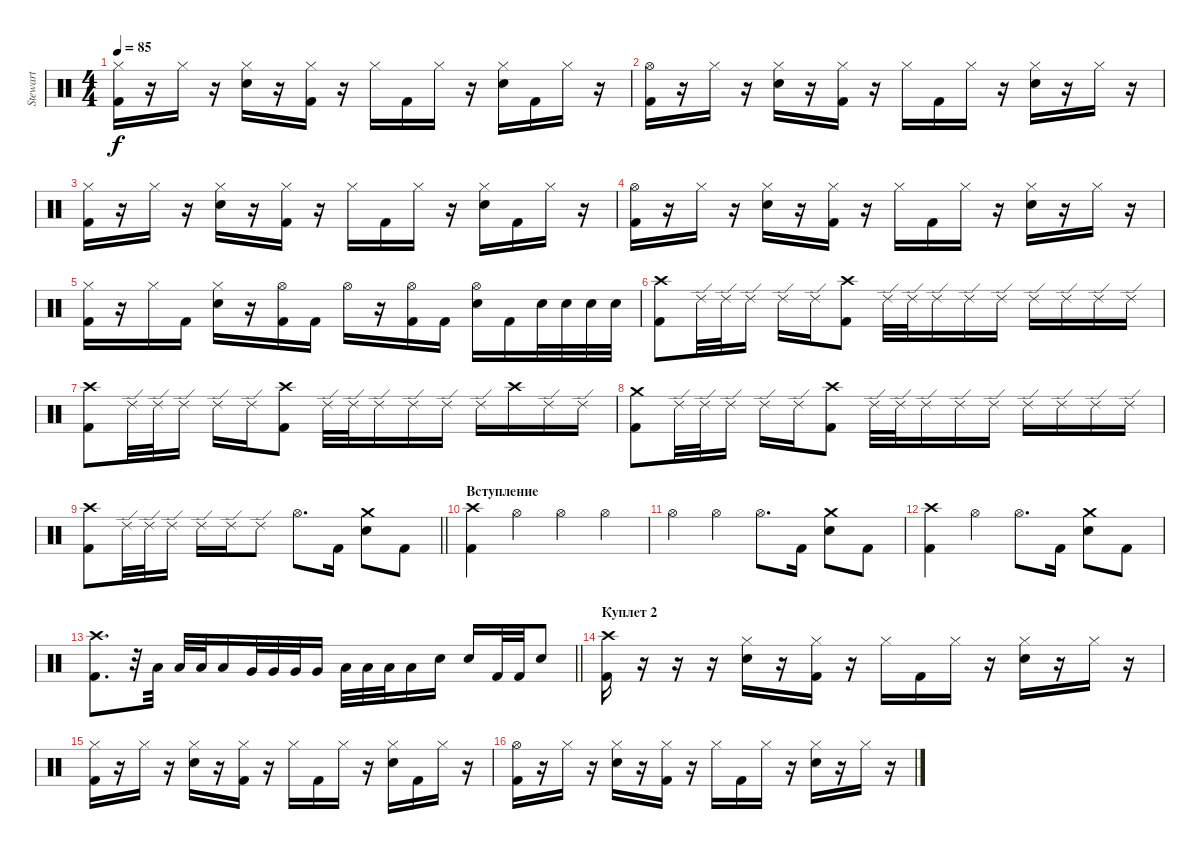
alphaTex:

\track ("Stewart" "Stewart") {instrument percussion}
\staff {score}
\articulation defaults
\ts (4 4)
\tempo 85
\clef neutral
\ks c
("Hi-Hat (closed)" "Kick (hit) 2").16{dy f} r.16 "Hi-Hat (closed)".16 r.16 ("Hi-Hat (closed)" "Electric Snare (hit)").16 r.16 ("Hi-Hat (closed)" "Kick (hit) 2").16 r.16 "Hi-Hat (closed)".16 "Kick (hit) 2".16 "Hi-Hat (closed)".16 r.16 ("Hi-Hat (closed)" "Electric Snare (hit)").16 "Kick (hit) 2".16 "Hi-Hat (closed)".16 r.16 |
("Hi-Hat (open)" "Kick (hit) 2").16 r.16 "Hi-Hat (closed)".16 r.16 ("Hi-Hat (closed)" "Electric Snare (hit)").16 r.16 ("Hi-Hat (closed)" "Kick (hit) 2").16 r.16 "Hi-Hat (closed)".16 "Kick (hit) 2".16 "Hi-Hat (closed)".16 r.16 ("Hi-Hat (closed)" "Electric Snare (hit)").16 r.16 "Hi-Hat (closed)".16 r.16 |
("Hi-Hat (closed)" "Kick (hit) 2").16 r.16 "Hi-Hat (closed)".16 r.16 ("Hi-Hat (closed)" "Electric Snare (hit)").16 r.16 ("Hi-Hat (closed)" "Kick (hit) 2").16 r.16 "Hi-Hat (closed)".16 "Kick (hit) 2".16 "Hi-Hat (closed)".16 r.16 ("Hi-Hat (closed)" "Electric Snare (hit)").16 "Kick (hit) 2".16 "Hi-Hat (closed)".16 r.16 |
("Hi-Hat (open)" "Kick (hit) 2").16 r.16 "Hi-Hat (closed)".16 r.16 ("Hi-Hat (closed)" "Electric Snare (hit)").16 r.16 ("Hi-Hat (closed)" "Kick (hit) 2").16 r.16 "Hi-Hat (closed)".16 "Kick (hit) 2".16 "Hi-Hat (closed)".16 r.16 ("Hi-Hat (closed)" "Electric Snare (hit)").16 r.16 "Hi-Hat (closed)".16 r.16 |
("Hi-Hat (closed)" "Kick (hit) 2").16 r.16 "Hi-Hat (closed)".16 "Kick (hit) 2".16 ("Hi-Hat (closed)" "Electric Snare (hit)").16 r.16 ("Hi-Hat (open)" "Kick (hit) 2").16 "Kick (hit) 2".16 "Hi-Hat (open)".16 r.16 ("Hi-Hat (open)" "Kick (hit) 2").16 "Kick (hit) 2".16 ("Hi-Hat (open)" "Electric Snare (hit)").16 "Kick (hit) 2".16 "Electric Snare (hit)".32 "Electric Snare (hit)".32 "Electric Snare (hit)".32 "Electric Snare (hit)".32 |
("Crash high (hit)" "Kick (hit) 2").8 "Ride (edge) 2".32 "Ride (edge) 2".32 "Ride (edge) 2".16 "Ride (edge) 2".16 "Ride (edge) 2".16 ("Crash high (hit)" "Kick (hit) 2").8 "Ride (edge) 2".32 "Ride (edge) 2".32 "Ride (edge) 2".16 "Ride (edge) 2".16 "Ride (edge) 2".16 "Ride (edge) 2".16 "Ride (edge) 2".16 "Ride (edge) 2".16 "Ride (edge) 2".16 |
("Crash high (hit)" "Kick (hit) 2").8 "Ride (edge) 2".32 "Ride (edge) 2".32 "Ride (edge) 2".16 "Ride (edge) 2".16 "Ride (edge) 2".16 ("Crash high (hit)" "Kick (hit) 2").8 "Ride (edge) 2".32 "Ride (edge) 2".32 "Ride (edge) 2".16 "Ride (edge) 2".16 "Ride (edge) 2".16 "Ride (edge) 2".16 "Crash high (hit)".16 "Ride (edge) 2".16 "Ride (edge) 2".16 |
("Crash medium (hit)" "Kick (hit) 2").8 "Ride (edge) 2".32 "Ride (edge) 2".32 "Ride (edge) 2".16 "Ride (edge) 2".16 "Ride (edge) 2".16 ("Crash high (hit)" "Kick (hit) 2").8 "Ride (edge) 2".32 "Ride (edge) 2".32 "Ride (edge) 2".16 "Ride (edge) 2".16 "Ride (edge) 2".16 "Ride (edge) 2".16 "Ride (edge) 2".16 "Ride (edge) 2".16 "Ride (edge) 2".16 |
\barLineRight lightlight
("Crash high (hit)" "Kick (hit) 2").8 "Ride (edge) 2".32 "Ride (edge) 2".32 "Ride (edge) 2".16 "Ride (edge) 2".16 "Ride (edge) 2".16 "Ride (edge) 2".8 "Hi-Hat (open)".8{d} "Kick (hit) 2".16 ("Crash medium (hit)" "Electric Snare (hit)").8 "Kick (hit) 2".8 |
\section ("" "Вступление")
("Crash high (hit)" "Kick (hit) 2").4 "Hi-Hat (open)".4 "Hi-Hat (open)".4 "Hi-Hat (open)".4 |
"Hi-Hat (open)".4 "Hi-Hat (open)".4 "Hi-Hat (open)".8{d} "Kick (hit) 2".16 ("Crash medium (hit)" "Electric Snare (hit)").8 "Kick (hit) 2".8 |
("Crash high (hit)" "Kick (hit) 2").4 "Hi-Hat (open)".4 "Hi-Hat (open)".8{d} "Kick (hit) 2".16 ("Crash medium (hit)" "Electric Snare (hit)").8 "Kick (hit) 2".8 |
\barLineRight lightlight
("Crash high (hit)" "Kick (hit) 2").8{d} r.32 "Low Tom (hit)".32 "Low Tom (hit)".32 "Low Tom (hit)".32 "Low Tom (hit)".16 "Very Low Tom (hit)".32 "Very Low Tom (hit)".32 "Very Low Tom (hit)".32 "Very Low Tom (hit)".16 "Low Floor Tom (hit)".32 "Low Floor Tom (hit)".32 "Low Floor Tom (hit)".32 "Low Floor Tom (hit)".16 "Electric Snare (hit)".16 "Electric Snare (hit)".16 "Kick (hit) 2".32 "Kick (hit) 2".32 "Electric Snare (hit)".8 |
\section ("" "Куплет 2")
("Crash high (hit)" "Kick (hit) 2").16 r.16 r.16 r.16 ("Hi-Hat (closed)" "Electric Snare (hit)").16 r.16 ("Hi-Hat (closed)" "Kick (hit) 2").16 r.16 "Hi-Hat (closed)".16 "Kick (hit) 2".16 "Hi-Hat (closed)".16 r.16 ("Hi-Hat (closed)" "Electric Snare (hit)").16 r.16 "Hi-Hat (closed)".16 r.16 |
("Hi-Hat (closed)" "Kick (hit) 2").16 r.16 "Hi-Hat (closed)".16 r.16 ("Hi-Hat (closed)" "Electric Snare (hit)").16 r.16 ("Hi-Hat (closed)" "Kick (hit) 2").16 r.16 "Hi-Hat (closed)".16 "Kick (hit) 2".16 "Hi-Hat (closed)".16 r.16 ("Hi-Hat (closed)" "Electric Snare (hit)").16 "Kick (hit) 2".16 "Hi-Hat (closed)".16 r.16 |
("Hi-Hat (open)" "Kick (hit) 2").16 r.16 "Hi-Hat (closed)".16 r.16 ("Hi-Hat (closed)" "Electric Snare (hit)").16 r.16 ("Hi-Hat (closed)" "Kick (hit) 2").16 r.16 "Hi-Hat (closed)".16 "Kick (hit) 2".16 "Hi-Hat (closed)".16 r.16 ("Hi-Hat (closed)" "Electric Snare (hit)").16 r.16 "Hi-Hat (closed)".16 r.16
